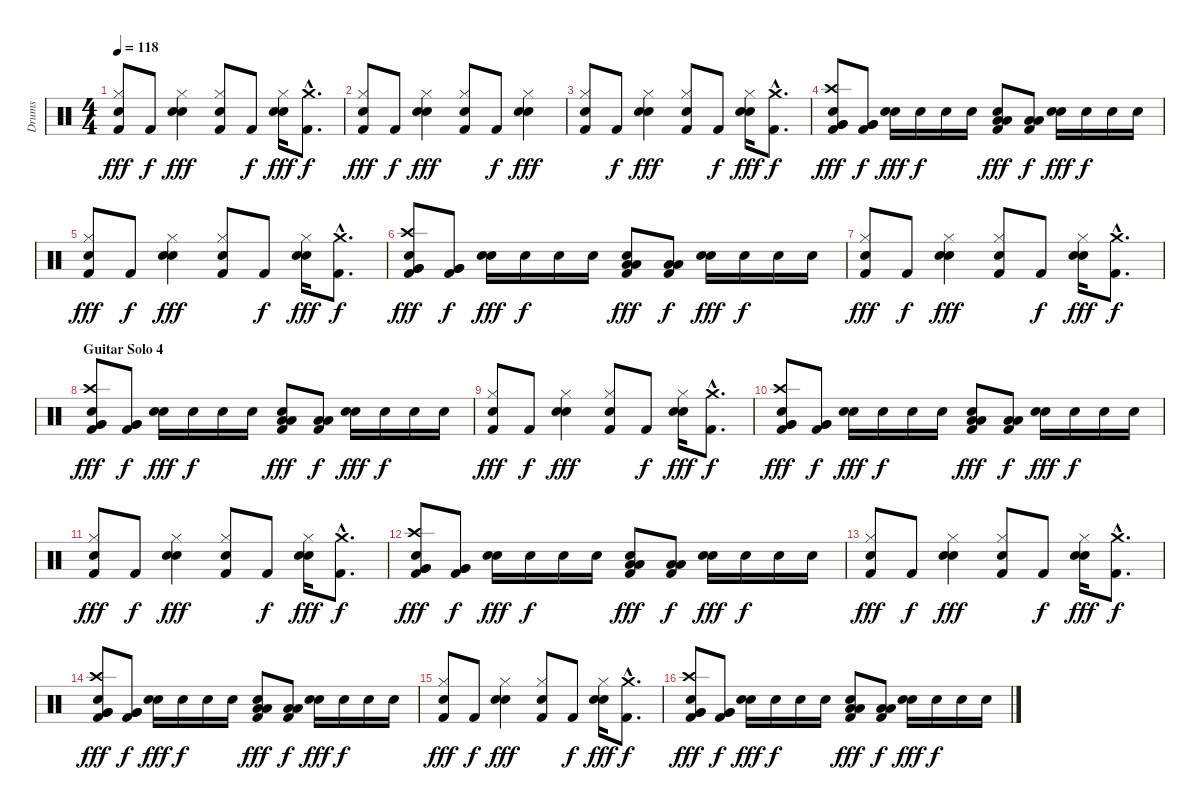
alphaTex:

\track ("Drums" "Drums") {instrument percussion}
\staff {score}
\articulation defaults
\ts (4 4)
\tempo 118
\clef neutral
\ks c
("Hand Clap (hit)" "Hi-Hat (closed)" "Kick (hit) 2").8{dy fff} "Kick (hit) 2".8{dy f} ("Hand Clap (hit)" "Hi-Hat (closed)" "Snare (hit) 2").4{dy fff} ("Hand Clap (hit)" "Hi-Hat (closed)" "Kick (hit) 2").8 "Kick (hit) 2".8{dy f} ("Hand Clap (hit)" "Hi-Hat (closed)" "Snare (hit) 2").16{dy fff} ("Crash medium (hit)"{hac} "Kick (hit) 2"{hac}).8{d dy f} |
("Hand Clap (hit)" "Hi-Hat (closed)" "Kick (hit) 2").8{dy fff} "Kick (hit) 2".8{dy f} ("Hand Clap (hit)" "Hi-Hat (closed)" "Snare (hit) 2").4{dy fff} ("Hand Clap (hit)" "Hi-Hat (closed)" "Kick (hit) 2").8 "Kick (hit) 2".8{dy f} ("Hand Clap (hit)" "Hi-Hat (closed)" "Snare (hit) 2").4{dy fff} |
("Hand Clap (hit)" "Hi-Hat (closed)" "Kick (hit) 2").8 "Kick (hit) 2".8{dy f} ("Hand Clap (hit)" "Hi-Hat (closed)" "Snare (hit) 2").4{dy fff} ("Hand Clap (hit)" "Hi-Hat (closed)" "Kick (hit) 2").8 "Kick (hit) 2".8{dy f} ("Hand Clap (hit)" "Hi-Hat (closed)" "Snare (hit) 2").16{dy fff} ("Crash medium (hit)"{hac} "Kick (hit) 2"{hac}).8{d dy f} |
("Crash high (hit)" "Hand Clap (hit)" "Very Low Tom (hit)" "Very Low Tom (hit)" "Kick (hit) 2").8{dy fff} ("Very Low Tom (hit)" "Very Low Tom (hit)" "Kick (hit) 2").8{dy f} ("Hand Clap (hit)" "Snare (hit) 2").16{dy fff} "Snare (hit) 2".16{dy f} "Snare (hit) 2".16 "Snare (hit) 2".16 ("Hand Clap (hit)" "Low Floor Tom (hit)" "Low Floor Tom (hit)" "Kick (hit) 2").8{dy fff} ("Low Floor Tom (hit)" "Low Floor Tom (hit)" "Kick (hit) 2").8{dy f} ("Hand Clap (hit)" "Snare (hit) 2").16{dy fff} "Snare (hit) 2".16{dy f} "Snare (hit) 2".16 "Snare (hit) 2".16 |
("Hand Clap (hit)" "Hi-Hat (closed)" "Kick (hit) 2").8{dy fff} "Kick (hit) 2".8{dy f} ("Hand Clap (hit)" "Hi-Hat (closed)" "Snare (hit) 2").4{dy fff} ("Hand Clap (hit)" "Hi-Hat (closed)" "Kick (hit) 2").8 "Kick (hit) 2".8{dy f} ("Hand Clap (hit)" "Hi-Hat (closed)" "Snare (hit) 2").16{dy fff} ("Crash medium (hit)"{hac} "Kick (hit) 2"{hac}).8{d dy f} |
("Crash high (hit)" "Hand Clap (hit)" "Very Low Tom (hit)" "Very Low Tom (hit)" "Kick (hit) 2").8{dy fff} ("Very Low Tom (hit)" "Very Low Tom (hit)" "Kick (hit) 2").8{dy f} ("Hand Clap (hit)" "Snare (hit) 2").16{dy fff} "Snare (hit) 2".16{dy f} "Snare (hit) 2".16 "Snare (hit) 2".16 ("Hand Clap (hit)" "Low Floor Tom (hit)" "Low Floor Tom (hit)" "Kick (hit) 2").8{dy fff} ("Low Floor Tom (hit)" "Low Floor Tom (hit)" "Kick (hit) 2").8{dy f} ("Hand Clap (hit)" "Snare (hit) 2").16{dy fff} "Snare (hit) 2".16{dy f} "Snare (hit) 2".16 "Snare (hit) 2".16 |
("Hand Clap (hit)" "Hi-Hat (closed)" "Kick (hit) 2").8{dy fff} "Kick (hit) 2".8{dy f} ("Hand Clap (hit)" "Hi-Hat (closed)" "Snare (hit) 2").4{dy fff} ("Hand Clap (hit)" "Hi-Hat (closed)" "Kick (hit) 2").8 "Kick (hit) 2".8{dy f} ("Hand Clap (hit)" "Hi-Hat (closed)" "Snare (hit) 2").16{dy fff} ("Crash medium (hit)"{hac} "Kick (hit) 2"{hac}).8{d dy f} |
\section ("" "Guitar Solo 4")
("Crash high (hit)" "Hand Clap (hit)" "Very Low Tom (hit)" "Very Low Tom (hit)" "Kick (hit) 2").8{dy fff} ("Very Low Tom (hit)" "Very Low Tom (hit)" "Kick (hit) 2").8{dy f} ("Hand Clap (hit)" "Snare (hit) 2").16{dy fff} "Snare (hit) 2".16{dy f} "Snare (hit) 2".16 "Snare (hit) 2".16 ("Hand Clap (hit)" "Low Floor Tom (hit)" "Low Floor Tom (hit)" "Kick (hit) 2").8{dy fff} ("Low Floor Tom (hit)" "Low Floor Tom (hit)" "Kick (hit) 2").8{dy f} ("Hand Clap (hit)" "Snare (hit) 2").16{dy fff} "Snare (hit) 2".16{dy f} "Snare (hit) 2".16 "Snare (hit) 2".16 |
("Hand Clap (hit)" "Hi-Hat (closed)" "Kick (hit) 2").8{dy fff} "Kick (hit) 2".8{dy f} ("Hand Clap (hit)" "Hi-Hat (closed)" "Snare (hit) 2").4{dy fff} ("Hand Clap (hit)" "Hi-Hat (closed)" "Kick (hit) 2").8 "Kick (hit) 2".8{dy f} ("Hand Clap (hit)" "Hi-Hat (closed)" "Snare (hit) 2").16{dy fff} ("Crash medium (hit)"{hac} "Kick (hit) 2"{hac}).8{d dy f} |
("Crash high (hit)" "Hand Clap (hit)" "Very Low Tom (hit)" "Very Low Tom (hit)" "Kick (hit) 2").8{dy fff} ("Very Low Tom (hit)" "Very Low Tom (hit)" "Kick (hit) 2").8{dy f} ("Hand Clap (hit)" "Snare (hit) 2").16{dy fff} "Snare (hit) 2".16{dy f} "Snare (hit) 2".16 "Snare (hit) 2".16 ("Hand Clap (hit)" "Low Floor Tom (hit)" "Low Floor Tom (hit)" "Kick (hit) 2").8{dy fff} ("Low Floor Tom (hit)" "Low Floor Tom (hit)" "Kick (hit) 2").8{dy f} ("Hand Clap (hit)" "Snare (hit) 2").16{dy fff} "Snare (hit) 2".16{dy f} "Snare (hit) 2".16 "Snare (hit) 2".16 |
("Hand Clap (hit)" "Hi-Hat (closed)" "Kick (hit) 2").8{dy fff} "Kick (hit) 2".8{dy f} ("Hand Clap (hit)" "Hi-Hat (closed)" "Snare (hit) 2").4{dy fff} ("Hand Clap (hit)" "Hi-Hat (closed)" "Kick (hit) 2").8 "Kick (hit) 2".8{dy f} ("Hand Clap (hit)" "Hi-Hat (closed)" "Snare (hit) 2").16{dy fff} ("Crash medium (hit)"{hac} "Kick (hit) 2"{hac}).8{d dy f} |
("Crash high (hit)" "Hand Clap (hit)" "Very Low Tom (hit)" "Very Low Tom (hit)" "Kick (hit) 2").8{dy fff} ("Very Low Tom (hit)" "Very Low Tom (hit)" "Kick (hit) 2").8{dy f} ("Hand Clap (hit)" "Snare (hit) 2").16{dy fff} "Snare (hit) 2".16{dy f} "Snare (hit) 2".16 "Snare (hit) 2".16 ("Hand Clap (hit)" "Low Floor Tom (hit)" "Low Floor Tom (hit)" "Kick (hit) 2").8{dy fff} ("Low Floor Tom (hit)" "Low Floor Tom (hit)" "Kick (hit) 2").8{dy f} ("Hand Clap (hit)" "Snare (hit) 2").16{dy fff} "Snare (hit) 2".16{dy f} "Snare (hit) 2".16 "Snare (hit) 2".16 |
("Hand Clap (hit)" "Hi-Hat (closed)" "Kick (hit) 2").8{dy fff} "Kick (hit) 2".8{dy f} ("Hand Clap (hit)" "Hi-Hat (closed)" "Snare (hit) 2").4{dy fff} ("Hand Clap (hit)" "Hi-Hat (closed)" "Kick (hit) 2").8 "Kick (hit) 2".8{dy f} ("Hand Clap (hit)" "Hi-Hat (closed)" "Snare (hit) 2").16{dy fff} ("Crash medium (hit)"{hac} "Kick (hit) 2"{hac}).8{d dy f} |
("Crash high (hit)" "Hand Clap (hit)" "Very Low Tom (hit)" "Very Low Tom (hit)" "Kick (hit) 2").8{dy fff} ("Very Low Tom (hit)" "Very Low Tom (hit)" "Kick (hit) 2").8{dy f} ("Hand Clap (hit)" "Snare (hit) 2").16{dy fff} "Snare (hit) 2".16{dy f} "Snare (hit) 2".16 "Snare (hit) 2".16 ("Hand Clap (hit)" "Low Floor Tom (hit)" "Low Floor Tom (hit)" "Kick (hit) 2").8{dy fff} ("Low Floor Tom (hit)" "Low Floor Tom (hit)" "Kick (hit) 2").8{dy f} ("Hand Clap (hit)" "Snare (hit) 2").16{dy fff} "Snare (hit) 2".16{dy f} "Snare (hit) 2".16 "Snare (hit) 2".16 |
("Hand Clap (hit)" "Hi-Hat (closed)" "Kick (hit) 2").8{dy fff} "Kick (hit) 2".8{dy f} ("Hand Clap (hit)" "Hi-Hat (closed)" "Snare (hit) 2").4{dy fff} ("Hand Clap (hit)" "Hi-Hat (closed)" "Kick (hit) 2").8 "Kick (hit) 2".8{dy f} ("Hand Clap (hit)" "Hi-Hat (closed)" "Snare (hit) 2").16{dy fff} ("Crash medium (hit)"{hac} "Kick (hit) 2"{hac}).8{d dy f} |
("Crash high (hit)" "Hand Clap (hit)" "Very Low Tom (hit)" "Very Low Tom (hit)" "Kick (hit) 2").8{dy fff} ("Very Low Tom (hit)" "Very Low Tom (hit)" "Kick (hit) 2").8{dy f} ("Hand Clap (hit)" "Snare (hit) 2").16{dy fff} "Snare (hit) 2".16{dy f} "Snare (hit) 2".16 "Snare (hit) 2".16 ("Hand Clap (hit)" "Low Floor Tom (hit)" "Low Floor Tom (hit)" "Kick (hit) 2").8{dy fff} ("Low Floor Tom (hit)" "Low Floor Tom (hit)" "Kick (hit) 2").8{dy f} ("Hand Clap (hit)" "Snare (hit) 2").16{dy fff} "Snare (hit) 2".16{dy f} "Snare (hit) 2".16 "Snare (hit) 2".16
